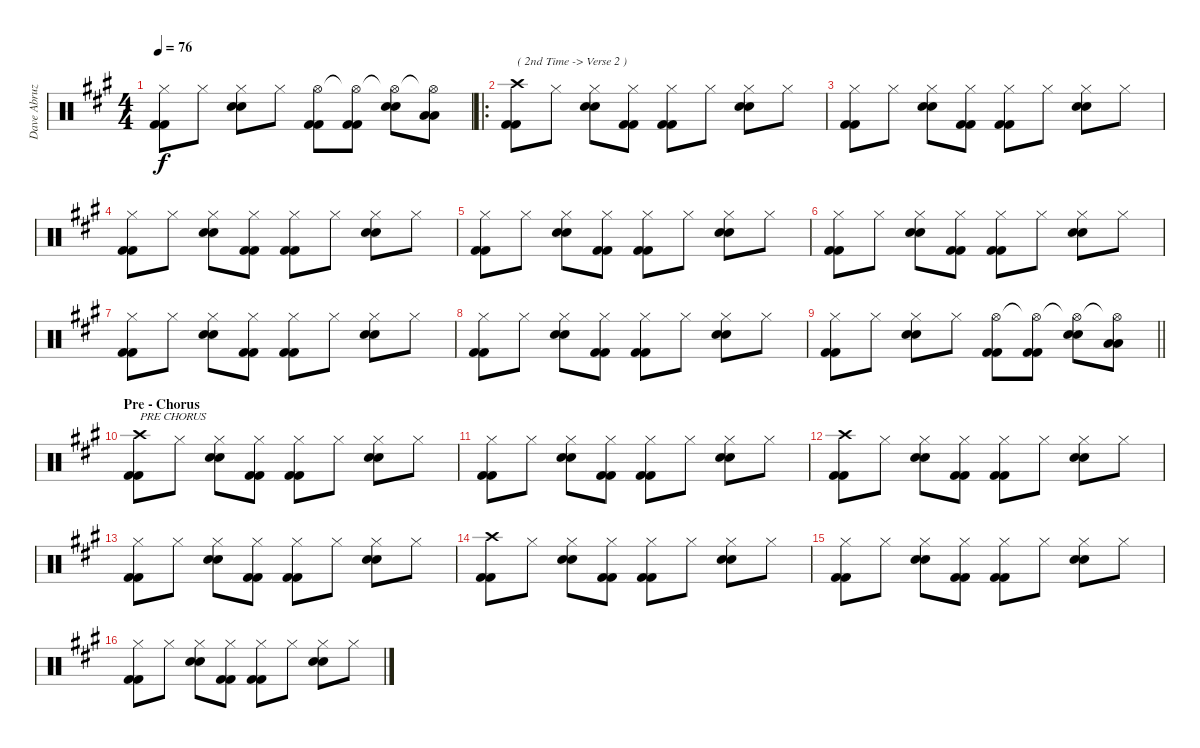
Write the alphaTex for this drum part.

\track ("Dave Abruzzese" "Dave Abruz") {instrument percussion}
\staff {score}
\articulation defaults
\ts (4 4)
\tempo 76
\clef neutral
\ks a
("Kick (hit) 2" "Kick (hit) 2" "Hi-Hat (closed)").8{dy f} "Hi-Hat (closed)".8 ("Electric Snare (hit)" "Electric Snare (hit)" "Hi-Hat (closed)").8 "Hi-Hat (closed)".8 ("Kick (hit) 2" "Kick (hit) 2" "Hi-Hat (open)").8 ("Kick (hit) 2" "Kick (hit) 2" "Hi-Hat (open)"{t}).8 ("Electric Snare (hit)" "Electric Snare (hit)" "Hi-Hat (open)"{t}).8 ("Low Tom (hit)" "Low Tom (hit)" "Hi-Hat (open)"{t}).8 |
\ro
("Kick (hit) 2" "Kick (hit) 2" "Crash high (hit)").8{txt "( 2nd Time -> Verse 2 )"} "Hi-Hat (closed)".8 ("Electric Snare (hit)" "Electric Snare (hit)" "Hi-Hat (closed)").8 ("Kick (hit) 2" "Kick (hit) 2" "Hi-Hat (closed)").8 ("Kick (hit) 2" "Kick (hit) 2" "Hi-Hat (closed)").8 "Hi-Hat (closed)".8 ("Electric Snare (hit)" "Electric Snare (hit)" "Hi-Hat (closed)").8 "Hi-Hat (closed)".8 |
("Kick (hit) 2" "Kick (hit) 2" "Hi-Hat (closed)").8 "Hi-Hat (closed)".8 ("Electric Snare (hit)" "Electric Snare (hit)" "Hi-Hat (closed)").8 ("Kick (hit) 2" "Kick (hit) 2" "Hi-Hat (closed)").8 ("Kick (hit) 2" "Kick (hit) 2" "Hi-Hat (closed)").8 "Hi-Hat (closed)".8 ("Electric Snare (hit)" "Electric Snare (hit)" "Hi-Hat (closed)").8 "Hi-Hat (closed)".8 |
("Kick (hit) 2" "Kick (hit) 2" "Hi-Hat (closed)").8 "Hi-Hat (closed)".8 ("Electric Snare (hit)" "Electric Snare (hit)" "Hi-Hat (closed)").8 ("Kick (hit) 2" "Kick (hit) 2" "Hi-Hat (closed)").8 ("Kick (hit) 2" "Kick (hit) 2" "Hi-Hat (closed)").8 "Hi-Hat (closed)".8 ("Electric Snare (hit)" "Electric Snare (hit)" "Hi-Hat (closed)").8 "Hi-Hat (closed)".8 |
("Kick (hit) 2" "Kick (hit) 2" "Hi-Hat (closed)").8 "Hi-Hat (closed)".8 ("Electric Snare (hit)" "Electric Snare (hit)" "Hi-Hat (closed)").8 ("Kick (hit) 2" "Kick (hit) 2" "Hi-Hat (closed)").8 ("Kick (hit) 2" "Kick (hit) 2" "Hi-Hat (closed)").8 "Hi-Hat (closed)".8 ("Electric Snare (hit)" "Electric Snare (hit)" "Hi-Hat (closed)").8 "Hi-Hat (closed)".8 |
("Kick (hit) 2" "Kick (hit) 2" "Hi-Hat (closed)").8 "Hi-Hat (closed)".8 ("Electric Snare (hit)" "Electric Snare (hit)" "Hi-Hat (closed)").8 ("Kick (hit) 2" "Kick (hit) 2" "Hi-Hat (closed)").8 ("Kick (hit) 2" "Kick (hit) 2" "Hi-Hat (closed)").8 "Hi-Hat (closed)".8 ("Electric Snare (hit)" "Electric Snare (hit)" "Hi-Hat (closed)").8 "Hi-Hat (closed)".8 |
("Kick (hit) 2" "Kick (hit) 2" "Hi-Hat (closed)").8 "Hi-Hat (closed)".8 ("Electric Snare (hit)" "Electric Snare (hit)" "Hi-Hat (closed)").8 ("Kick (hit) 2" "Kick (hit) 2" "Hi-Hat (closed)").8 ("Kick (hit) 2" "Kick (hit) 2" "Hi-Hat (closed)").8 "Hi-Hat (closed)".8 ("Electric Snare (hit)" "Electric Snare (hit)" "Hi-Hat (closed)").8 "Hi-Hat (closed)".8 |
("Kick (hit) 2" "Kick (hit) 2" "Hi-Hat (closed)").8 "Hi-Hat (closed)".8 ("Electric Snare (hit)" "Electric Snare (hit)" "Hi-Hat (closed)").8 ("Kick (hit) 2" "Kick (hit) 2" "Hi-Hat (closed)").8 ("Kick (hit) 2" "Kick (hit) 2" "Hi-Hat (closed)").8 "Hi-Hat (closed)".8 ("Electric Snare (hit)" "Electric Snare (hit)" "Hi-Hat (closed)").8 "Hi-Hat (closed)".8 |
\barLineRight lightlight
("Kick (hit) 2" "Kick (hit) 2" "Hi-Hat (closed)").8 "Hi-Hat (closed)".8 ("Electric Snare (hit)" "Electric Snare (hit)" "Hi-Hat (closed)").8 "Hi-Hat (closed)".8 ("Kick (hit) 2" "Kick (hit) 2" "Hi-Hat (open)").8 ("Kick (hit) 2" "Kick (hit) 2" "Hi-Hat (open)"{t}).8 ("Electric Snare (hit)" "Electric Snare (hit)" "Hi-Hat (open)"{t}).8 ("Low Tom (hit)" "Low Tom (hit)" "Hi-Hat (open)"{t}).8 |
\section ("" "Pre - Chorus")
("Kick (hit) 2" "Kick (hit) 2" "Crash high (hit)").8{txt "PRE CHORUS"} "Hi-Hat (closed)".8 ("Electric Snare (hit)" "Electric Snare (hit)" "Hi-Hat (closed)").8 ("Kick (hit) 2" "Kick (hit) 2" "Hi-Hat (closed)").8 ("Kick (hit) 2" "Kick (hit) 2" "Hi-Hat (closed)").8 "Hi-Hat (closed)".8 ("Electric Snare (hit)" "Electric Snare (hit)" "Hi-Hat (closed)").8 "Hi-Hat (closed)".8 |
("Kick (hit) 2" "Kick (hit) 2" "Hi-Hat (closed)").8 "Hi-Hat (closed)".8 ("Electric Snare (hit)" "Electric Snare (hit)" "Hi-Hat (closed)").8 ("Kick (hit) 2" "Kick (hit) 2" "Hi-Hat (closed)").8 ("Kick (hit) 2" "Kick (hit) 2" "Hi-Hat (closed)").8 "Hi-Hat (closed)".8 ("Electric Snare (hit)" "Electric Snare (hit)" "Hi-Hat (closed)").8 "Hi-Hat (closed)".8 |
("Kick (hit) 2" "Kick (hit) 2" "Crash high (hit)").8 "Hi-Hat (closed)".8 ("Electric Snare (hit)" "Electric Snare (hit)" "Hi-Hat (closed)").8 ("Kick (hit) 2" "Kick (hit) 2" "Hi-Hat (closed)").8 ("Kick (hit) 2" "Kick (hit) 2" "Hi-Hat (closed)").8 "Hi-Hat (closed)".8 ("Electric Snare (hit)" "Electric Snare (hit)" "Hi-Hat (closed)").8 "Hi-Hat (closed)".8 |
("Kick (hit) 2" "Kick (hit) 2" "Hi-Hat (closed)").8 "Hi-Hat (closed)".8 ("Electric Snare (hit)" "Electric Snare (hit)" "Hi-Hat (closed)").8 ("Kick (hit) 2" "Kick (hit) 2" "Hi-Hat (closed)").8 ("Kick (hit) 2" "Kick (hit) 2" "Hi-Hat (closed)").8 "Hi-Hat (closed)".8 ("Electric Snare (hit)" "Electric Snare (hit)" "Hi-Hat (closed)").8 "Hi-Hat (closed)".8 |
("Kick (hit) 2" "Kick (hit) 2" "Crash high (hit)").8 "Hi-Hat (closed)".8 ("Electric Snare (hit)" "Electric Snare (hit)" "Hi-Hat (closed)").8 ("Kick (hit) 2" "Kick (hit) 2" "Hi-Hat (closed)").8 ("Kick (hit) 2" "Kick (hit) 2" "Hi-Hat (closed)").8 "Hi-Hat (closed)".8 ("Electric Snare (hit)" "Electric Snare (hit)" "Hi-Hat (closed)").8 "Hi-Hat (closed)".8 |
("Kick (hit) 2" "Kick (hit) 2" "Hi-Hat (closed)").8 "Hi-Hat (closed)".8 ("Electric Snare (hit)" "Electric Snare (hit)" "Hi-Hat (closed)").8 ("Kick (hit) 2" "Kick (hit) 2" "Hi-Hat (closed)").8 ("Kick (hit) 2" "Kick (hit) 2" "Hi-Hat (closed)").8 "Hi-Hat (closed)".8 ("Electric Snare (hit)" "Electric Snare (hit)" "Hi-Hat (closed)").8 "Hi-Hat (closed)".8 |
("Kick (hit) 2" "Kick (hit) 2" "Hi-Hat (closed)").8 "Hi-Hat (closed)".8 ("Electric Snare (hit)" "Electric Snare (hit)" "Hi-Hat (closed)").8 ("Kick (hit) 2" "Kick (hit) 2" "Hi-Hat (closed)").8 ("Kick (hit) 2" "Kick (hit) 2" "Hi-Hat (closed)").8 "Hi-Hat (closed)".8 ("Electric Snare (hit)" "Electric Snare (hit)" "Hi-Hat (closed)").8 "Hi-Hat (closed)".8
